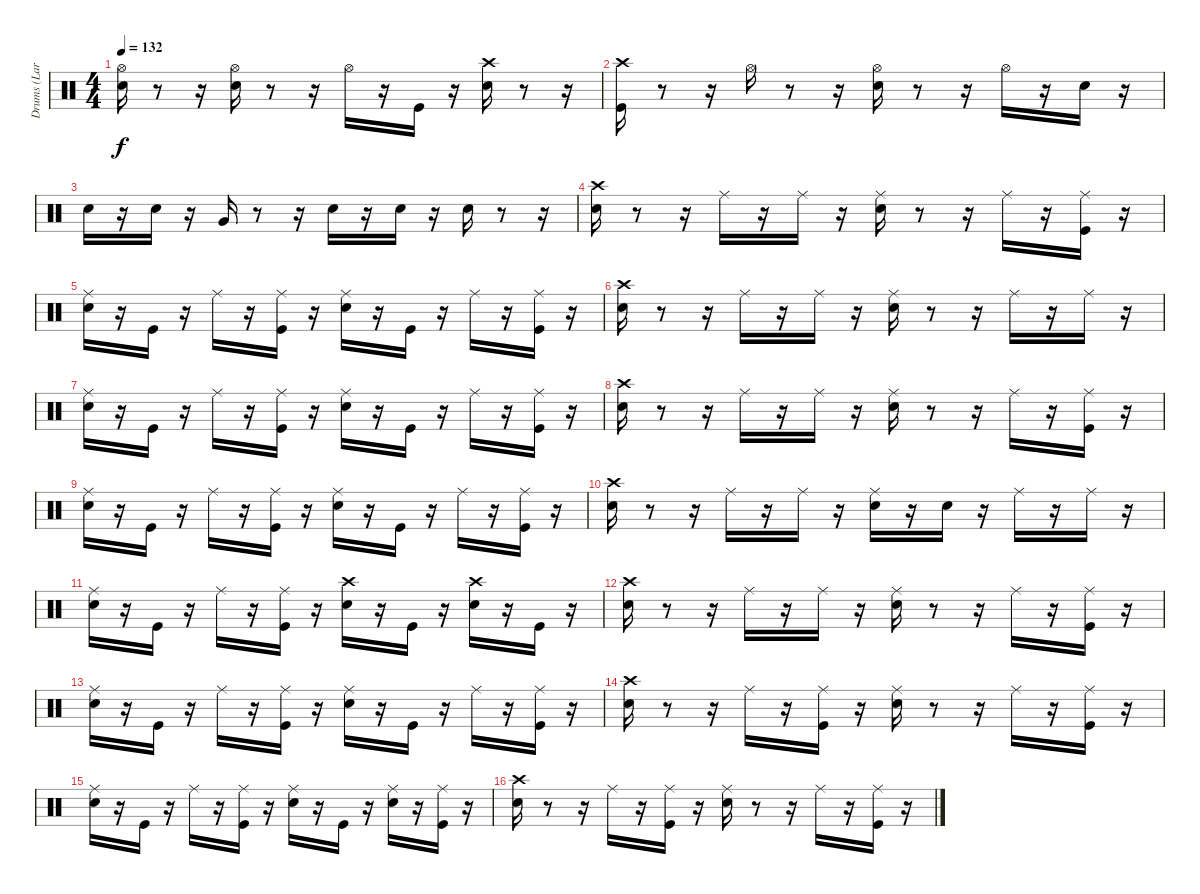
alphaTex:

\track ("Drums (Lars)" "Drums (Lar") {instrument percussion}
\staff {score}
\articulation defaults
\ts (4 4)
\tempo 132
\clef neutral
\ks c
("Hi-Hat (open)" "Snare (hit) 2").16{dy f} r.8 r.16 ("Hi-Hat (open)" "Snare (hit) 2").16 r.8 r.16 "Hi-Hat (open)".16 r.16 "Kick (hit)".16 r.16 ("Snare (hit) 2" "Crash high (hit)").16 r.8 r.16 |
("Kick (hit)" "Crash high (hit)").16 r.8 r.16 "Hi-Hat (open)".16 r.8 r.16 ("Hi-Hat (open)" "Snare (hit) 2").16 r.8 r.16 "Hi-Hat (open)".16 r.16 "Snare (hit) 2".16 r.16 |
"Snare (hit) 2".16 r.16 "Snare (hit) 2".16 r.16 "Very Low Tom (hit)".16 r.8 r.16 "Snare (hit) 2".16 r.16 "Snare (hit) 2".16 r.16 "Snare (hit) 2".16 r.8 r.16 |
("Snare (hit) 2" "Crash high (hit)").16 r.8 r.16 "Ride (middle)".16 r.16 "Ride (middle)".16 r.16 ("Ride (middle)" "Snare (hit) 2").16 r.8 r.16 "Ride (middle)".16 r.16 ("Ride (middle)" "Kick (hit)").16 r.16 |
("Ride (middle)" "Snare (hit) 2").16 r.16 "Kick (hit)".16 r.16 "Ride (middle)".16 r.16 ("Ride (middle)" "Kick (hit)").16 r.16 ("Ride (middle)" "Snare (hit) 2").16 r.16 "Kick (hit)".16 r.16 "Ride (middle)".16 r.16 ("Ride (middle)" "Kick (hit)").16 r.16 |
("Snare (hit) 2" "Crash high (hit)").16 r.8 r.16 "Ride (middle)".16 r.16 "Ride (middle)".16 r.16 ("Ride (middle)" "Snare (hit) 2").16 r.8 r.16 "Ride (middle)".16 r.16 "Ride (middle)".16 r.16 |
("Ride (middle)" "Snare (hit) 2").16 r.16 "Kick (hit)".16 r.16 "Ride (middle)".16 r.16 ("Ride (middle)" "Kick (hit)").16 r.16 ("Ride (middle)" "Snare (hit) 2").16 r.16 "Kick (hit)".16 r.16 "Ride (middle)".16 r.16 ("Ride (middle)" "Kick (hit)").16 r.16 |
("Crash high (hit)" "Snare (hit) 2").16 r.8 r.16 "Ride (middle)".16 r.16 "Ride (middle)".16 r.16 ("Ride (middle)" "Snare (hit) 2").16 r.8 r.16 "Ride (middle)".16 r.16 ("Ride (middle)" "Kick (hit)").16 r.16 |
("Ride (middle)" "Snare (hit) 2").16 r.16 "Kick (hit)".16 r.16 "Ride (middle)".16 r.16 ("Ride (middle)" "Kick (hit)").16 r.16 ("Ride (middle)" "Snare (hit) 2").16 r.16 "Kick (hit)".16 r.16 "Ride (middle)".16 r.16 ("Ride (middle)" "Kick (hit)").16 r.16 |
("Snare (hit) 2" "Crash high (hit)").16 r.8 r.16 "Ride (middle)".16 r.16 "Ride (middle)".16 r.16 ("Ride (middle)" "Snare (hit) 2").16 r.16 "Snare (hit) 2".16 r.16 "Ride (middle)".16 r.16 "Ride (middle)".16 r.16 |
("Ride (middle)" "Snare (hit) 2").16 r.16 "Kick (hit)".16 r.16 "Ride (middle)".16 r.16 ("Ride (middle)" "Kick (hit)").16 r.16 ("Snare (hit) 2" "Crash high (hit)").16 r.16 "Kick (hit)".16 r.16 ("Crash high (hit)" "Snare (hit) 2").16 r.16 "Kick (hit)".16 r.16 |
("Snare (hit) 2" "Crash high (hit)").16 r.8 r.16 "Ride (middle)".16 r.16 "Ride (middle)".16 r.16 ("Ride (middle)" "Snare (hit) 2").16 r.8 r.16 "Ride (middle)".16 r.16 ("Ride (middle)" "Kick (hit)").16 r.16 |
("Ride (middle)" "Snare (hit) 2").16 r.16 "Kick (hit)".16 r.16 "Ride (middle)".16 r.16 ("Ride (middle)" "Kick (hit)").16 r.16 ("Ride (middle)" "Snare (hit) 2").16 r.16 "Kick (hit)".16 r.16 "Ride (middle)".16 r.16 ("Ride (middle)" "Kick (hit)").16 r.16 |
("Snare (hit) 2" "Crash high (hit)").16 r.8 r.16 "Ride (middle)".16 r.16 ("Ride (middle)" "Kick (hit)").16 r.16 ("Ride (middle)" "Snare (hit) 2").16 r.8 r.16 "Ride (middle)".16 r.16 ("Ride (middle)" "Kick (hit)").16 r.16 |
("Ride (middle)" "Snare (hit) 2").16 r.16 "Kick (hit)".16 r.16 "Ride (middle)".16 r.16 ("Ride (middle)" "Kick (hit)").16 r.16 ("Ride (middle)" "Snare (hit) 2").16 r.16 "Kick (hit)".16 r.16 ("Ride (middle)" "Snare (hit) 2").16 r.16 ("Ride (middle)" "Kick (hit)").16 r.16 |
("Crash high (hit)" "Snare (hit) 2").16 r.8 r.16 "Ride (middle)".16 r.16 ("Ride (middle)" "Kick (hit)").16 r.16 ("Ride (middle)" "Snare (hit) 2").16 r.8 r.16 "Ride (middle)".16 r.16 ("Ride (middle)" "Kick (hit)").16 r.16
